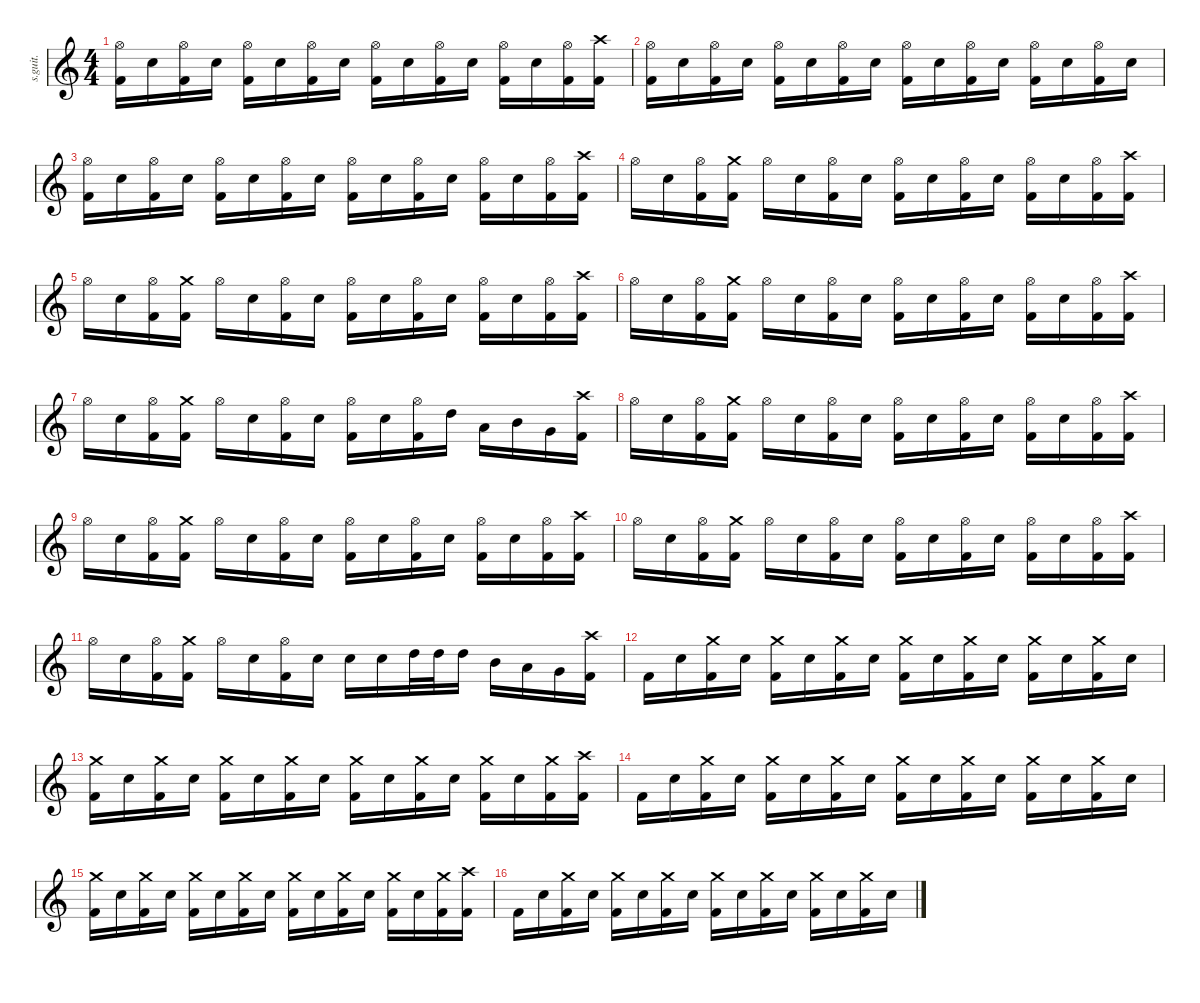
\defaultSystemsLayout 4
\hideDynamics
\bracketExtendMode nobrackets
\track ("Tomas Haake" "s.guit.") {instrument percussion}
\staff {score}
\articulation defaults
\ts (4 4)
\tempo (110 hide)
\clef g2
\ks c
("Hi-Hat (open)" "Kick (hit) 2").16{lyrics (0 "") lyrics (1 "") lyrics (2 "") lyrics (3 "") lyrics (4 "") dy f} "Snare (hit) 2".16{lyrics (0 "") lyrics (1 "") lyrics (2 "") lyrics (3 "") lyrics (4 "")} ("Hi-Hat (open)" "Kick (hit) 2").16{lyrics (0 "") lyrics (1 "") lyrics (2 "") lyrics (3 "") lyrics (4 "")} "Snare (hit) 2".16{lyrics (0 "") lyrics (1 "") lyrics (2 "") lyrics (3 "") lyrics (4 "")} ("Hi-Hat (open)" "Kick (hit) 2").16{lyrics (0 "") lyrics (1 "") lyrics (2 "") lyrics (3 "") lyrics (4 "")} "Snare (hit) 2".16{lyrics (0 "") lyrics (1 "") lyrics (2 "") lyrics (3 "") lyrics (4 "")} ("Hi-Hat (open)" "Kick (hit) 2").16{lyrics (0 "") lyrics (1 "") lyrics (2 "") lyrics (3 "") lyrics (4 "")} "Snare (hit) 2".16{lyrics (0 "") lyrics (1 "") lyrics (2 "") lyrics (3 "") lyrics (4 "")} ("Hi-Hat (open)" "Kick (hit) 2").16{lyrics (0 "") lyrics (1 "") lyrics (2 "") lyrics (3 "") lyrics (4 "")} "Snare (hit) 2".16{lyrics (0 "") lyrics (1 "") lyrics (2 "") lyrics (3 "") lyrics (4 "")} ("Hi-Hat (open)" "Kick (hit) 2").16{lyrics (0 "") lyrics (1 "") lyrics (2 "") lyrics (3 "") lyrics (4 "")} "Snare (hit) 2".16{lyrics (0 "") lyrics (1 "") lyrics (2 "") lyrics (3 "") lyrics (4 "")} ("Hi-Hat (open)" "Kick (hit) 2").16{lyrics (0 "") lyrics (1 "") lyrics (2 "") lyrics (3 "") lyrics (4 "")} "Snare (hit) 2".16{lyrics (0 "") lyrics (1 "") lyrics (2 "") lyrics (3 "") lyrics (4 "")} ("Hi-Hat (open)" "Kick (hit) 2").16{lyrics (0 "") lyrics (1 "") lyrics (2 "") lyrics (3 "") lyrics (4 "")} ("Crash high (hit)" "Kick (hit) 2").16{lyrics (0 "") lyrics (1 "") lyrics (2 "") lyrics (3 "") lyrics (4 "")} |
("Hi-Hat (open)" "Kick (hit) 2").16{lyrics (0 "") lyrics (1 "") lyrics (2 "") lyrics (3 "") lyrics (4 "")} "Snare (hit) 2".16{lyrics (0 "") lyrics (1 "") lyrics (2 "") lyrics (3 "") lyrics (4 "")} ("Hi-Hat (open)" "Kick (hit) 2").16{lyrics (0 "") lyrics (1 "") lyrics (2 "") lyrics (3 "") lyrics (4 "")} "Snare (hit) 2".16{lyrics (0 "") lyrics (1 "") lyrics (2 "") lyrics (3 "") lyrics (4 "")} ("Hi-Hat (open)" "Kick (hit) 2").16{lyrics (0 "") lyrics (1 "") lyrics (2 "") lyrics (3 "") lyrics (4 "")} "Snare (hit) 2".16{lyrics (0 "") lyrics (1 "") lyrics (2 "") lyrics (3 "") lyrics (4 "")} ("Hi-Hat (open)" "Kick (hit) 2").16{lyrics (0 "") lyrics (1 "") lyrics (2 "") lyrics (3 "") lyrics (4 "")} "Snare (hit) 2".16{lyrics (0 "") lyrics (1 "") lyrics (2 "") lyrics (3 "") lyrics (4 "")} ("Hi-Hat (open)" "Kick (hit) 2").16{lyrics (0 "") lyrics (1 "") lyrics (2 "") lyrics (3 "") lyrics (4 "")} "Snare (hit) 2".16{lyrics (0 "") lyrics (1 "") lyrics (2 "") lyrics (3 "") lyrics (4 "")} ("Hi-Hat (open)" "Kick (hit) 2").16{lyrics (0 "") lyrics (1 "") lyrics (2 "") lyrics (3 "") lyrics (4 "")} "Snare (hit) 2".16{lyrics (0 "") lyrics (1 "") lyrics (2 "") lyrics (3 "") lyrics (4 "")} ("Hi-Hat (open)" "Kick (hit) 2").16{lyrics (0 "") lyrics (1 "") lyrics (2 "") lyrics (3 "") lyrics (4 "")} "Snare (hit) 2".16{lyrics (0 "") lyrics (1 "") lyrics (2 "") lyrics (3 "") lyrics (4 "")} ("Hi-Hat (open)" "Kick (hit) 2").16{lyrics (0 "") lyrics (1 "") lyrics (2 "") lyrics (3 "") lyrics (4 "")} "Snare (hit) 2".16{lyrics (0 "") lyrics (1 "") lyrics (2 "") lyrics (3 "") lyrics (4 "")} |
("Hi-Hat (open)" "Kick (hit) 2").16{lyrics (0 "") lyrics (1 "") lyrics (2 "") lyrics (3 "") lyrics (4 "")} "Snare (hit) 2".16{lyrics (0 "") lyrics (1 "") lyrics (2 "") lyrics (3 "") lyrics (4 "")} ("Hi-Hat (open)" "Kick (hit) 2").16{lyrics (0 "") lyrics (1 "") lyrics (2 "") lyrics (3 "") lyrics (4 "")} "Snare (hit) 2".16{lyrics (0 "") lyrics (1 "") lyrics (2 "") lyrics (3 "") lyrics (4 "")} ("Hi-Hat (open)" "Kick (hit) 2").16{lyrics (0 "") lyrics (1 "") lyrics (2 "") lyrics (3 "") lyrics (4 "")} "Snare (hit) 2".16{lyrics (0 "") lyrics (1 "") lyrics (2 "") lyrics (3 "") lyrics (4 "")} ("Hi-Hat (open)" "Kick (hit) 2").16{lyrics (0 "") lyrics (1 "") lyrics (2 "") lyrics (3 "") lyrics (4 "")} "Snare (hit) 2".16{lyrics (0 "") lyrics (1 "") lyrics (2 "") lyrics (3 "") lyrics (4 "")} ("Hi-Hat (open)" "Kick (hit) 2").16{lyrics (0 "") lyrics (1 "") lyrics (2 "") lyrics (3 "") lyrics (4 "")} "Snare (hit) 2".16{lyrics (0 "") lyrics (1 "") lyrics (2 "") lyrics (3 "") lyrics (4 "")} ("Hi-Hat (open)" "Kick (hit) 2").16{lyrics (0 "") lyrics (1 "") lyrics (2 "") lyrics (3 "") lyrics (4 "")} "Snare (hit) 2".16{lyrics (0 "") lyrics (1 "") lyrics (2 "") lyrics (3 "") lyrics (4 "")} ("Hi-Hat (open)" "Kick (hit) 2").16{lyrics (0 "") lyrics (1 "") lyrics (2 "") lyrics (3 "") lyrics (4 "")} "Snare (hit) 2".16{lyrics (0 "") lyrics (1 "") lyrics (2 "") lyrics (3 "") lyrics (4 "")} ("Hi-Hat (open)" "Kick (hit) 2").16{lyrics (0 "") lyrics (1 "") lyrics (2 "") lyrics (3 "") lyrics (4 "")} ("Crash high (hit)" "Kick (hit) 2").16{lyrics (0 "") lyrics (1 "") lyrics (2 "") lyrics (3 "") lyrics (4 "")} |
"Hi-Hat (open)".16{lyrics (0 "") lyrics (1 "") lyrics (2 "") lyrics (3 "") lyrics (4 "")} "Snare (hit) 2".16{lyrics (0 "") lyrics (1 "") lyrics (2 "") lyrics (3 "") lyrics (4 "")} ("Hi-Hat (open)" "Kick (hit) 2").16{lyrics (0 "") lyrics (1 "") lyrics (2 "") lyrics (3 "") lyrics (4 "")} ("Crash medium (hit)" "Kick (hit) 2").16{lyrics (0 "") lyrics (1 "") lyrics (2 "") lyrics (3 "") lyrics (4 "")} "Hi-Hat (open)".16{lyrics (0 "") lyrics (1 "") lyrics (2 "") lyrics (3 "") lyrics (4 "")} "Snare (hit) 2".16{lyrics (0 "") lyrics (1 "") lyrics (2 "") lyrics (3 "") lyrics (4 "")} ("Hi-Hat (open)" "Kick (hit) 2").16{lyrics (0 "") lyrics (1 "") lyrics (2 "") lyrics (3 "") lyrics (4 "")} "Snare (hit) 2".16{lyrics (0 "") lyrics (1 "") lyrics (2 "") lyrics (3 "") lyrics (4 "")} ("Hi-Hat (open)" "Kick (hit) 2").16{lyrics (0 "") lyrics (1 "") lyrics (2 "") lyrics (3 "") lyrics (4 "")} "Snare (hit) 2".16{lyrics (0 "") lyrics (1 "") lyrics (2 "") lyrics (3 "") lyrics (4 "")} ("Hi-Hat (open)" "Kick (hit) 2").16{lyrics (0 "") lyrics (1 "") lyrics (2 "") lyrics (3 "") lyrics (4 "")} "Snare (hit) 2".16{lyrics (0 "") lyrics (1 "") lyrics (2 "") lyrics (3 "") lyrics (4 "")} ("Hi-Hat (open)" "Kick (hit) 2").16{lyrics (0 "") lyrics (1 "") lyrics (2 "") lyrics (3 "") lyrics (4 "")} "Snare (hit) 2".16{lyrics (0 "") lyrics (1 "") lyrics (2 "") lyrics (3 "") lyrics (4 "")} ("Hi-Hat (open)" "Kick (hit) 2").16{lyrics (0 "") lyrics (1 "") lyrics (2 "") lyrics (3 "") lyrics (4 "")} ("Crash high (hit)" "Kick (hit) 2").16{lyrics (0 "") lyrics (1 "") lyrics (2 "") lyrics (3 "") lyrics (4 "")} |
"Hi-Hat (open)".16{lyrics (0 "") lyrics (1 "") lyrics (2 "") lyrics (3 "") lyrics (4 "")} "Snare (hit) 2".16{lyrics (0 "") lyrics (1 "") lyrics (2 "") lyrics (3 "") lyrics (4 "")} ("Hi-Hat (open)" "Kick (hit) 2").16{lyrics (0 "") lyrics (1 "") lyrics (2 "") lyrics (3 "") lyrics (4 "")} ("Crash medium (hit)" "Kick (hit) 2").16{lyrics (0 "") lyrics (1 "") lyrics (2 "") lyrics (3 "") lyrics (4 "")} "Hi-Hat (open)".16{lyrics (0 "") lyrics (1 "") lyrics (2 "") lyrics (3 "") lyrics (4 "")} "Snare (hit) 2".16{lyrics (0 "") lyrics (1 "") lyrics (2 "") lyrics (3 "") lyrics (4 "")} ("Hi-Hat (open)" "Kick (hit) 2").16{lyrics (0 "") lyrics (1 "") lyrics (2 "") lyrics (3 "") lyrics (4 "")} "Snare (hit) 2".16{lyrics (0 "") lyrics (1 "") lyrics (2 "") lyrics (3 "") lyrics (4 "")} ("Hi-Hat (open)" "Kick (hit) 2").16{lyrics (0 "") lyrics (1 "") lyrics (2 "") lyrics (3 "") lyrics (4 "")} "Snare (hit) 2".16{lyrics (0 "") lyrics (1 "") lyrics (2 "") lyrics (3 "") lyrics (4 "")} ("Hi-Hat (open)" "Kick (hit) 2").16{lyrics (0 "") lyrics (1 "") lyrics (2 "") lyrics (3 "") lyrics (4 "")} "Snare (hit) 2".16{lyrics (0 "") lyrics (1 "") lyrics (2 "") lyrics (3 "") lyrics (4 "")} ("Hi-Hat (open)" "Kick (hit) 2").16{lyrics (0 "") lyrics (1 "") lyrics (2 "") lyrics (3 "") lyrics (4 "")} "Snare (hit) 2".16{lyrics (0 "") lyrics (1 "") lyrics (2 "") lyrics (3 "") lyrics (4 "")} ("Hi-Hat (open)" "Kick (hit) 2").16{lyrics (0 "") lyrics (1 "") lyrics (2 "") lyrics (3 "") lyrics (4 "")} ("Crash high (hit)" "Kick (hit) 2").16{lyrics (0 "") lyrics (1 "") lyrics (2 "") lyrics (3 "") lyrics (4 "")} |
"Hi-Hat (open)".16{lyrics (0 "") lyrics (1 "") lyrics (2 "") lyrics (3 "") lyrics (4 "")} "Snare (hit) 2".16{lyrics (0 "") lyrics (1 "") lyrics (2 "") lyrics (3 "") lyrics (4 "")} ("Hi-Hat (open)" "Kick (hit) 2").16{lyrics (0 "") lyrics (1 "") lyrics (2 "") lyrics (3 "") lyrics (4 "")} ("Crash medium (hit)" "Kick (hit) 2").16{lyrics (0 "") lyrics (1 "") lyrics (2 "") lyrics (3 "") lyrics (4 "")} "Hi-Hat (open)".16{lyrics (0 "") lyrics (1 "") lyrics (2 "") lyrics (3 "") lyrics (4 "")} "Snare (hit) 2".16{lyrics (0 "") lyrics (1 "") lyrics (2 "") lyrics (3 "") lyrics (4 "")} ("Hi-Hat (open)" "Kick (hit) 2").16{lyrics (0 "") lyrics (1 "") lyrics (2 "") lyrics (3 "") lyrics (4 "")} "Snare (hit) 2".16{lyrics (0 "") lyrics (1 "") lyrics (2 "") lyrics (3 "") lyrics (4 "")} ("Hi-Hat (open)" "Kick (hit) 2").16{lyrics (0 "") lyrics (1 "") lyrics (2 "") lyrics (3 "") lyrics (4 "")} "Snare (hit) 2".16{lyrics (0 "") lyrics (1 "") lyrics (2 "") lyrics (3 "") lyrics (4 "")} ("Hi-Hat (open)" "Kick (hit) 2").16{lyrics (0 "") lyrics (1 "") lyrics (2 "") lyrics (3 "") lyrics (4 "")} "Snare (hit) 2".16{lyrics (0 "") lyrics (1 "") lyrics (2 "") lyrics (3 "") lyrics (4 "")} ("Hi-Hat (open)" "Kick (hit) 2").16{lyrics (0 "") lyrics (1 "") lyrics (2 "") lyrics (3 "") lyrics (4 "")} "Snare (hit) 2".16{lyrics (0 "") lyrics (1 "") lyrics (2 "") lyrics (3 "") lyrics (4 "")} ("Hi-Hat (open)" "Kick (hit) 2").16{lyrics (0 "") lyrics (1 "") lyrics (2 "") lyrics (3 "") lyrics (4 "")} ("Crash high (hit)" "Kick (hit) 2").16{lyrics (0 "") lyrics (1 "") lyrics (2 "") lyrics (3 "") lyrics (4 "")} |
"Hi-Hat (open)".16{lyrics (0 "") lyrics (1 "") lyrics (2 "") lyrics (3 "") lyrics (4 "")} "Snare (hit) 2".16{lyrics (0 "") lyrics (1 "") lyrics (2 "") lyrics (3 "") lyrics (4 "")} ("Hi-Hat (open)" "Kick (hit) 2").16{lyrics (0 "") lyrics (1 "") lyrics (2 "") lyrics (3 "") lyrics (4 "")} ("Crash medium (hit)" "Kick (hit) 2").16{lyrics (0 "") lyrics (1 "") lyrics (2 "") lyrics (3 "") lyrics (4 "")} "Hi-Hat (open)".16{lyrics (0 "") lyrics (1 "") lyrics (2 "") lyrics (3 "") lyrics (4 "")} "Snare (hit) 2".16{lyrics (0 "") lyrics (1 "") lyrics (2 "") lyrics (3 "") lyrics (4 "")} ("Hi-Hat (open)" "Kick (hit) 2").16{lyrics (0 "") lyrics (1 "") lyrics (2 "") lyrics (3 "") lyrics (4 "")} "Snare (hit) 2".16{lyrics (0 "") lyrics (1 "") lyrics (2 "") lyrics (3 "") lyrics (4 "")} ("Hi-Hat (open)" "Kick (hit) 2").16{lyrics (0 "") lyrics (1 "") lyrics (2 "") lyrics (3 "") lyrics (4 "")} "Snare (hit) 2".16{lyrics (0 "") lyrics (1 "") lyrics (2 "") lyrics (3 "") lyrics (4 "")} ("Hi-Hat (open)" "Kick (hit) 2").16{lyrics (0 "") lyrics (1 "") lyrics (2 "") lyrics (3 "") lyrics (4 "")} "High Tom (hit)".16{lyrics (0 "") lyrics (1 "") lyrics (2 "") lyrics (3 "") lyrics (4 "")} "Low Tom (hit)".16{lyrics (0 "") lyrics (1 "") lyrics (2 "") lyrics (3 "") lyrics (4 "")} "Mid Tom (hit)".16{lyrics (0 "") lyrics (1 "") lyrics (2 "") lyrics (3 "") lyrics (4 "")} "Very Low Tom (hit)".16{lyrics (0 "") lyrics (1 "") lyrics (2 "") lyrics (3 "") lyrics (4 "")} ("Crash high (hit)" "Kick (hit) 2").16{lyrics (0 "") lyrics (1 "") lyrics (2 "") lyrics (3 "") lyrics (4 "")} |
"Hi-Hat (open)".16{lyrics (0 "") lyrics (1 "") lyrics (2 "") lyrics (3 "") lyrics (4 "")} "Snare (hit) 2".16{lyrics (0 "") lyrics (1 "") lyrics (2 "") lyrics (3 "") lyrics (4 "")} ("Hi-Hat (open)" "Kick (hit) 2").16{lyrics (0 "") lyrics (1 "") lyrics (2 "") lyrics (3 "") lyrics (4 "")} ("Crash medium (hit)" "Kick (hit) 2").16{lyrics (0 "") lyrics (1 "") lyrics (2 "") lyrics (3 "") lyrics (4 "")} "Hi-Hat (open)".16{lyrics (0 "") lyrics (1 "") lyrics (2 "") lyrics (3 "") lyrics (4 "")} "Snare (hit) 2".16{lyrics (0 "") lyrics (1 "") lyrics (2 "") lyrics (3 "") lyrics (4 "")} ("Hi-Hat (open)" "Kick (hit) 2").16{lyrics (0 "") lyrics (1 "") lyrics (2 "") lyrics (3 "") lyrics (4 "")} "Snare (hit) 2".16{lyrics (0 "") lyrics (1 "") lyrics (2 "") lyrics (3 "") lyrics (4 "")} ("Hi-Hat (open)" "Kick (hit) 2").16{lyrics (0 "") lyrics (1 "") lyrics (2 "") lyrics (3 "") lyrics (4 "")} "Snare (hit) 2".16{lyrics (0 "") lyrics (1 "") lyrics (2 "") lyrics (3 "") lyrics (4 "")} ("Hi-Hat (open)" "Kick (hit) 2").16{lyrics (0 "") lyrics (1 "") lyrics (2 "") lyrics (3 "") lyrics (4 "")} "Snare (hit) 2".16{lyrics (0 "") lyrics (1 "") lyrics (2 "") lyrics (3 "") lyrics (4 "")} ("Hi-Hat (open)" "Kick (hit) 2").16{lyrics (0 "") lyrics (1 "") lyrics (2 "") lyrics (3 "") lyrics (4 "")} "Snare (hit) 2".16{lyrics (0 "") lyrics (1 "") lyrics (2 "") lyrics (3 "") lyrics (4 "")} ("Hi-Hat (open)" "Kick (hit) 2").16{lyrics (0 "") lyrics (1 "") lyrics (2 "") lyrics (3 "") lyrics (4 "")} ("Crash high (hit)" "Kick (hit) 2").16{lyrics (0 "") lyrics (1 "") lyrics (2 "") lyrics (3 "") lyrics (4 "")} |
"Hi-Hat (open)".16{lyrics (0 "") lyrics (1 "") lyrics (2 "") lyrics (3 "") lyrics (4 "")} "Snare (hit) 2".16{lyrics (0 "") lyrics (1 "") lyrics (2 "") lyrics (3 "") lyrics (4 "")} ("Hi-Hat (open)" "Kick (hit) 2").16{lyrics (0 "") lyrics (1 "") lyrics (2 "") lyrics (3 "") lyrics (4 "")} ("Crash medium (hit)" "Kick (hit) 2").16{lyrics (0 "") lyrics (1 "") lyrics (2 "") lyrics (3 "") lyrics (4 "")} "Hi-Hat (open)".16{lyrics (0 "") lyrics (1 "") lyrics (2 "") lyrics (3 "") lyrics (4 "")} "Snare (hit) 2".16{lyrics (0 "") lyrics (1 "") lyrics (2 "") lyrics (3 "") lyrics (4 "")} ("Hi-Hat (open)" "Kick (hit) 2").16{lyrics (0 "") lyrics (1 "") lyrics (2 "") lyrics (3 "") lyrics (4 "")} "Snare (hit) 2".16{lyrics (0 "") lyrics (1 "") lyrics (2 "") lyrics (3 "") lyrics (4 "")} ("Hi-Hat (open)" "Kick (hit) 2").16{lyrics (0 "") lyrics (1 "") lyrics (2 "") lyrics (3 "") lyrics (4 "")} "Snare (hit) 2".16{lyrics (0 "") lyrics (1 "") lyrics (2 "") lyrics (3 "") lyrics (4 "")} ("Hi-Hat (open)" "Kick (hit) 2").16{lyrics (0 "") lyrics (1 "") lyrics (2 "") lyrics (3 "") lyrics (4 "")} "Snare (hit) 2".16{lyrics (0 "") lyrics (1 "") lyrics (2 "") lyrics (3 "") lyrics (4 "")} ("Hi-Hat (open)" "Kick (hit) 2").16{lyrics (0 "") lyrics (1 "") lyrics (2 "") lyrics (3 "") lyrics (4 "")} "Snare (hit) 2".16{lyrics (0 "") lyrics (1 "") lyrics (2 "") lyrics (3 "") lyrics (4 "")} ("Hi-Hat (open)" "Kick (hit) 2").16{lyrics (0 "") lyrics (1 "") lyrics (2 "") lyrics (3 "") lyrics (4 "")} ("Crash high (hit)" "Kick (hit) 2").16{lyrics (0 "") lyrics (1 "") lyrics (2 "") lyrics (3 "") lyrics (4 "")} |
"Hi-Hat (open)".16{lyrics (0 "") lyrics (1 "") lyrics (2 "") lyrics (3 "") lyrics (4 "")} "Snare (hit) 2".16{lyrics (0 "") lyrics (1 "") lyrics (2 "") lyrics (3 "") lyrics (4 "")} ("Hi-Hat (open)" "Kick (hit) 2").16{lyrics (0 "") lyrics (1 "") lyrics (2 "") lyrics (3 "") lyrics (4 "")} ("Crash medium (hit)" "Kick (hit) 2").16{lyrics (0 "") lyrics (1 "") lyrics (2 "") lyrics (3 "") lyrics (4 "")} "Hi-Hat (open)".16{lyrics (0 "") lyrics (1 "") lyrics (2 "") lyrics (3 "") lyrics (4 "")} "Snare (hit) 2".16{lyrics (0 "") lyrics (1 "") lyrics (2 "") lyrics (3 "") lyrics (4 "")} ("Hi-Hat (open)" "Kick (hit) 2").16{lyrics (0 "") lyrics (1 "") lyrics (2 "") lyrics (3 "") lyrics (4 "")} "Snare (hit) 2".16{lyrics (0 "") lyrics (1 "") lyrics (2 "") lyrics (3 "") lyrics (4 "")} ("Hi-Hat (open)" "Kick (hit) 2").16{lyrics (0 "") lyrics (1 "") lyrics (2 "") lyrics (3 "") lyrics (4 "")} "Snare (hit) 2".16{lyrics (0 "") lyrics (1 "") lyrics (2 "") lyrics (3 "") lyrics (4 "")} ("Hi-Hat (open)" "Kick (hit) 2").16{lyrics (0 "") lyrics (1 "") lyrics (2 "") lyrics (3 "") lyrics (4 "")} "Snare (hit) 2".16{lyrics (0 "") lyrics (1 "") lyrics (2 "") lyrics (3 "") lyrics (4 "")} ("Hi-Hat (open)" "Kick (hit) 2").16{lyrics (0 "") lyrics (1 "") lyrics (2 "") lyrics (3 "") lyrics (4 "")} "Snare (hit) 2".16{lyrics (0 "") lyrics (1 "") lyrics (2 "") lyrics (3 "") lyrics (4 "")} ("Hi-Hat (open)" "Kick (hit) 2").16{lyrics (0 "") lyrics (1 "") lyrics (2 "") lyrics (3 "") lyrics (4 "")} ("Crash high (hit)" "Kick (hit) 2").16{lyrics (0 "") lyrics (1 "") lyrics (2 "") lyrics (3 "") lyrics (4 "")} |
"Hi-Hat (open)".16{lyrics (0 "") lyrics (1 "") lyrics (2 "") lyrics (3 "") lyrics (4 "")} "Snare (hit) 2".16{lyrics (0 "") lyrics (1 "") lyrics (2 "") lyrics (3 "") lyrics (4 "")} ("Hi-Hat (open)" "Kick (hit) 2").16{lyrics (0 "") lyrics (1 "") lyrics (2 "") lyrics (3 "") lyrics (4 "")} ("Crash medium (hit)" "Kick (hit) 2").16{lyrics (0 "") lyrics (1 "") lyrics (2 "") lyrics (3 "") lyrics (4 "")} "Hi-Hat (open)".16{lyrics (0 "") lyrics (1 "") lyrics (2 "") lyrics (3 "") lyrics (4 "")} "Snare (hit) 2".16{lyrics (0 "") lyrics (1 "") lyrics (2 "") lyrics (3 "") lyrics (4 "")} ("Hi-Hat (open)" "Kick (hit) 2").16{lyrics (0 "") lyrics (1 "") lyrics (2 "") lyrics (3 "") lyrics (4 "")} "Snare (hit) 2".16{lyrics (0 "") lyrics (1 "") lyrics (2 "") lyrics (3 "") lyrics (4 "")} "Snare (hit) 2".16{lyrics (0 "") lyrics (1 "") lyrics (2 "") lyrics (3 "") lyrics (4 "")} "Snare (hit) 2".16{lyrics (0 "") lyrics (1 "") lyrics (2 "") lyrics (3 "") lyrics (4 "")} "High Tom (hit)".32{lyrics (0 "") lyrics (1 "") lyrics (2 "") lyrics (3 "") lyrics (4 "")} "High Tom (hit)".32{lyrics (0 "") lyrics (1 "") lyrics (2 "") lyrics (3 "") lyrics (4 "")} "High Tom (hit)".16{lyrics (0 "") lyrics (1 "") lyrics (2 "") lyrics (3 "") lyrics (4 "")} "Mid Tom (hit)".16{lyrics (0 "") lyrics (1 "") lyrics (2 "") lyrics (3 "") lyrics (4 "")} "Low Tom (hit)".16{lyrics (0 "") lyrics (1 "") lyrics (2 "") lyrics (3 "") lyrics (4 "")} "Very Low Tom (hit)".16{lyrics (0 "") lyrics (1 "") lyrics (2 "") lyrics (3 "") lyrics (4 "")} ("Crash high (hit)" "Kick (hit) 2").16{lyrics (0 "") lyrics (1 "") lyrics (2 "") lyrics (3 "") lyrics (4 "")} |
"Kick (hit) 2".16{lyrics (0 "") lyrics (1 "") lyrics (2 "") lyrics (3 "") lyrics (4 "")} "Snare (hit) 2".16{lyrics (0 "") lyrics (1 "") lyrics (2 "") lyrics (3 "") lyrics (4 "")} ("Crash medium (hit)" "Kick (hit) 2").16{lyrics (0 "") lyrics (1 "") lyrics (2 "") lyrics (3 "") lyrics (4 "")} "Snare (hit) 2".16{lyrics (0 "") lyrics (1 "") lyrics (2 "") lyrics (3 "") lyrics (4 "")} ("Crash medium (hit)" "Kick (hit) 2").16{lyrics (0 "") lyrics (1 "") lyrics (2 "") lyrics (3 "") lyrics (4 "")} "Snare (hit) 2".16{lyrics (0 "") lyrics (1 "") lyrics (2 "") lyrics (3 "") lyrics (4 "")} ("Crash medium (hit)" "Kick (hit) 2").16{lyrics (0 "") lyrics (1 "") lyrics (2 "") lyrics (3 "") lyrics (4 "")} "Snare (hit) 2".16{lyrics (0 "") lyrics (1 "") lyrics (2 "") lyrics (3 "") lyrics (4 "")} ("Crash medium (hit)" "Kick (hit) 2").16{lyrics (0 "") lyrics (1 "") lyrics (2 "") lyrics (3 "") lyrics (4 "")} "Snare (hit) 2".16{lyrics (0 "") lyrics (1 "") lyrics (2 "") lyrics (3 "") lyrics (4 "")} ("Crash medium (hit)" "Kick (hit) 2").16{lyrics (0 "") lyrics (1 "") lyrics (2 "") lyrics (3 "") lyrics (4 "")} "Snare (hit) 2".16{lyrics (0 "") lyrics (1 "") lyrics (2 "") lyrics (3 "") lyrics (4 "")} ("Crash medium (hit)" "Kick (hit) 2").16{lyrics (0 "") lyrics (1 "") lyrics (2 "") lyrics (3 "") lyrics (4 "")} "Snare (hit) 2".16{lyrics (0 "") lyrics (1 "") lyrics (2 "") lyrics (3 "") lyrics (4 "")} ("Crash medium (hit)" "Kick (hit) 2").16{lyrics (0 "") lyrics (1 "") lyrics (2 "") lyrics (3 "") lyrics (4 "")} "Snare (hit) 2".16{lyrics (0 "") lyrics (1 "") lyrics (2 "") lyrics (3 "") lyrics (4 "")} |
("Crash medium (hit)" "Kick (hit) 2").16{lyrics (0 "") lyrics (1 "") lyrics (2 "") lyrics (3 "") lyrics (4 "")} "Snare (hit) 2".16{lyrics (0 "") lyrics (1 "") lyrics (2 "") lyrics (3 "") lyrics (4 "")} ("Crash medium (hit)" "Kick (hit) 2").16{lyrics (0 "") lyrics (1 "") lyrics (2 "") lyrics (3 "") lyrics (4 "")} "Snare (hit) 2".16{lyrics (0 "") lyrics (1 "") lyrics (2 "") lyrics (3 "") lyrics (4 "")} ("Crash medium (hit)" "Kick (hit) 2").16{lyrics (0 "") lyrics (1 "") lyrics (2 "") lyrics (3 "") lyrics (4 "")} "Snare (hit) 2".16{lyrics (0 "") lyrics (1 "") lyrics (2 "") lyrics (3 "") lyrics (4 "")} ("Crash medium (hit)" "Kick (hit) 2").16{lyrics (0 "") lyrics (1 "") lyrics (2 "") lyrics (3 "") lyrics (4 "")} "Snare (hit) 2".16{lyrics (0 "") lyrics (1 "") lyrics (2 "") lyrics (3 "") lyrics (4 "")} ("Crash medium (hit)" "Kick (hit) 2").16{lyrics (0 "") lyrics (1 "") lyrics (2 "") lyrics (3 "") lyrics (4 "")} "Snare (hit) 2".16{lyrics (0 "") lyrics (1 "") lyrics (2 "") lyrics (3 "") lyrics (4 "")} ("Crash medium (hit)" "Kick (hit) 2").16{lyrics (0 "") lyrics (1 "") lyrics (2 "") lyrics (3 "") lyrics (4 "")} "Snare (hit) 2".16{lyrics (0 "") lyrics (1 "") lyrics (2 "") lyrics (3 "") lyrics (4 "")} ("Crash medium (hit)" "Kick (hit) 2").16{lyrics (0 "") lyrics (1 "") lyrics (2 "") lyrics (3 "") lyrics (4 "")} "Snare (hit) 2".16{lyrics (0 "") lyrics (1 "") lyrics (2 "") lyrics (3 "") lyrics (4 "")} ("Crash medium (hit)" "Kick (hit) 2").16{lyrics (0 "") lyrics (1 "") lyrics (2 "") lyrics (3 "") lyrics (4 "")} ("Crash high (hit)" "Kick (hit) 2").16{lyrics (0 "") lyrics (1 "") lyrics (2 "") lyrics (3 "") lyrics (4 "")} |
"Kick (hit) 2".16{lyrics (0 "") lyrics (1 "") lyrics (2 "") lyrics (3 "") lyrics (4 "")} "Snare (hit) 2".16{lyrics (0 "") lyrics (1 "") lyrics (2 "") lyrics (3 "") lyrics (4 "")} ("Crash medium (hit)" "Kick (hit) 2").16{lyrics (0 "") lyrics (1 "") lyrics (2 "") lyrics (3 "") lyrics (4 "")} "Snare (hit) 2".16{lyrics (0 "") lyrics (1 "") lyrics (2 "") lyrics (3 "") lyrics (4 "")} ("Crash medium (hit)" "Kick (hit) 2").16{lyrics (0 "") lyrics (1 "") lyrics (2 "") lyrics (3 "") lyrics (4 "")} "Snare (hit) 2".16{lyrics (0 "") lyrics (1 "") lyrics (2 "") lyrics (3 "") lyrics (4 "")} ("Crash medium (hit)" "Kick (hit) 2").16{lyrics (0 "") lyrics (1 "") lyrics (2 "") lyrics (3 "") lyrics (4 "")} "Snare (hit) 2".16{lyrics (0 "") lyrics (1 "") lyrics (2 "") lyrics (3 "") lyrics (4 "")} ("Crash medium (hit)" "Kick (hit) 2").16{lyrics (0 "") lyrics (1 "") lyrics (2 "") lyrics (3 "") lyrics (4 "")} "Snare (hit) 2".16{lyrics (0 "") lyrics (1 "") lyrics (2 "") lyrics (3 "") lyrics (4 "")} ("Crash medium (hit)" "Kick (hit) 2").16{lyrics (0 "") lyrics (1 "") lyrics (2 "") lyrics (3 "") lyrics (4 "")} "Snare (hit) 2".16{lyrics (0 "") lyrics (1 "") lyrics (2 "") lyrics (3 "") lyrics (4 "")} ("Crash medium (hit)" "Kick (hit) 2").16{lyrics (0 "") lyrics (1 "") lyrics (2 "") lyrics (3 "") lyrics (4 "")} "Snare (hit) 2".16{lyrics (0 "") lyrics (1 "") lyrics (2 "") lyrics (3 "") lyrics (4 "")} ("Crash medium (hit)" "Kick (hit) 2").16{lyrics (0 "") lyrics (1 "") lyrics (2 "") lyrics (3 "") lyrics (4 "")} "Snare (hit) 2".16{lyrics (0 "") lyrics (1 "") lyrics (2 "") lyrics (3 "") lyrics (4 "")} |
("Crash medium (hit)" "Kick (hit) 2").16{lyrics (0 "") lyrics (1 "") lyrics (2 "") lyrics (3 "") lyrics (4 "")} "Snare (hit) 2".16{lyrics (0 "") lyrics (1 "") lyrics (2 "") lyrics (3 "") lyrics (4 "")} ("Crash medium (hit)" "Kick (hit) 2").16{lyrics (0 "") lyrics (1 "") lyrics (2 "") lyrics (3 "") lyrics (4 "")} "Snare (hit) 2".16{lyrics (0 "") lyrics (1 "") lyrics (2 "") lyrics (3 "") lyrics (4 "")} ("Crash medium (hit)" "Kick (hit) 2").16{lyrics (0 "") lyrics (1 "") lyrics (2 "") lyrics (3 "") lyrics (4 "")} "Snare (hit) 2".16{lyrics (0 "") lyrics (1 "") lyrics (2 "") lyrics (3 "") lyrics (4 "")} ("Crash medium (hit)" "Kick (hit) 2").16{lyrics (0 "") lyrics (1 "") lyrics (2 "") lyrics (3 "") lyrics (4 "")} "Snare (hit) 2".16{lyrics (0 "") lyrics (1 "") lyrics (2 "") lyrics (3 "") lyrics (4 "")} ("Crash medium (hit)" "Kick (hit) 2").16{lyrics (0 "") lyrics (1 "") lyrics (2 "") lyrics (3 "") lyrics (4 "")} "Snare (hit) 2".16{lyrics (0 "") lyrics (1 "") lyrics (2 "") lyrics (3 "") lyrics (4 "")} ("Crash medium (hit)" "Kick (hit) 2").16{lyrics (0 "") lyrics (1 "") lyrics (2 "") lyrics (3 "") lyrics (4 "")} "Snare (hit) 2".16{lyrics (0 "") lyrics (1 "") lyrics (2 "") lyrics (3 "") lyrics (4 "")} ("Crash medium (hit)" "Kick (hit) 2").16{lyrics (0 "") lyrics (1 "") lyrics (2 "") lyrics (3 "") lyrics (4 "")} "Snare (hit) 2".16{lyrics (0 "") lyrics (1 "") lyrics (2 "") lyrics (3 "") lyrics (4 "")} ("Crash medium (hit)" "Kick (hit) 2").16{lyrics (0 "") lyrics (1 "") lyrics (2 "") lyrics (3 "") lyrics (4 "")} ("Crash high (hit)" "Kick (hit) 2").16{lyrics (0 "") lyrics (1 "") lyrics (2 "") lyrics (3 "") lyrics (4 "")} |
"Kick (hit) 2".16{lyrics (0 "") lyrics (1 "") lyrics (2 "") lyrics (3 "") lyrics (4 "")} "Snare (hit) 2".16{lyrics (0 "") lyrics (1 "") lyrics (2 "") lyrics (3 "") lyrics (4 "")} ("Crash medium (hit)" "Kick (hit) 2").16{lyrics (0 "") lyrics (1 "") lyrics (2 "") lyrics (3 "") lyrics (4 "")} "Snare (hit) 2".16{lyrics (0 "") lyrics (1 "") lyrics (2 "") lyrics (3 "") lyrics (4 "")} ("Crash medium (hit)" "Kick (hit) 2").16{lyrics (0 "") lyrics (1 "") lyrics (2 "") lyrics (3 "") lyrics (4 "")} "Snare (hit) 2".16{lyrics (0 "") lyrics (1 "") lyrics (2 "") lyrics (3 "") lyrics (4 "")} ("Crash medium (hit)" "Kick (hit) 2").16{lyrics (0 "") lyrics (1 "") lyrics (2 "") lyrics (3 "") lyrics (4 "")} "Snare (hit) 2".16{lyrics (0 "") lyrics (1 "") lyrics (2 "") lyrics (3 "") lyrics (4 "")} ("Crash medium (hit)" "Kick (hit) 2").16{lyrics (0 "") lyrics (1 "") lyrics (2 "") lyrics (3 "") lyrics (4 "")} "Snare (hit) 2".16{lyrics (0 "") lyrics (1 "") lyrics (2 "") lyrics (3 "") lyrics (4 "")} ("Crash medium (hit)" "Kick (hit) 2").16{lyrics (0 "") lyrics (1 "") lyrics (2 "") lyrics (3 "") lyrics (4 "")} "Snare (hit) 2".16{lyrics (0 "") lyrics (1 "") lyrics (2 "") lyrics (3 "") lyrics (4 "")} ("Crash medium (hit)" "Kick (hit) 2").16{lyrics (0 "") lyrics (1 "") lyrics (2 "") lyrics (3 "") lyrics (4 "")} "Snare (hit) 2".16{lyrics (0 "") lyrics (1 "") lyrics (2 "") lyrics (3 "") lyrics (4 "")} ("Crash medium (hit)" "Kick (hit) 2").16{lyrics (0 "") lyrics (1 "") lyrics (2 "") lyrics (3 "") lyrics (4 "")} "Snare (hit) 2".16{lyrics (0 "") lyrics (1 "") lyrics (2 "") lyrics (3 "") lyrics (4 "")}
